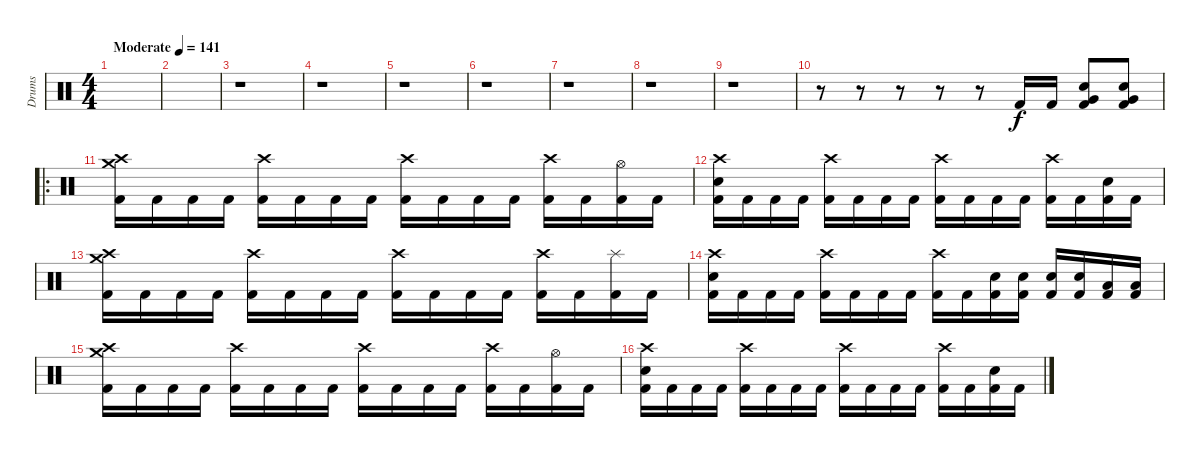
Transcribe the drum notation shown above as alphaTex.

\track ("Drums" "Drums") {solo instrument percussion}
\staff {score}
\articulation defaults
\ts (4 4)
\tempo (141 "Moderate")
\clef neutral
\ks c
|
|
r.1 |
r.1 |
r.1 |
r.1 |
r.1 |
r.1 |
r.1 |
r.8 r.8 r.8 r.8 r.8 "Kick (hit) 2".16 "Kick (hit) 2".16 ("Very Low Tom (hit)" "Electric Snare (hit)" "Kick (hit) 2").8 ("Very Low Tom (hit)" "Electric Snare (hit)" "Kick (hit) 2").8 |
\ro
("Crash high (hit)" "Crash medium (hit)" "Kick (hit) 2").16 "Kick (hit) 2".16 "Kick (hit) 2".16 "Kick (hit) 2".16 ("Crash high (hit)" "Kick (hit) 2").16 "Kick (hit) 2".16 "Kick (hit) 2".16 "Kick (hit) 2".16 ("Crash high (hit)" "Kick (hit) 2").16 "Kick (hit) 2".16 "Kick (hit) 2".16 "Kick (hit) 2".16 ("Crash high (hit)" "Kick (hit) 2").16 "Kick (hit) 2".16 ("Hi-Hat (open)" "Kick (hit) 2").16 "Kick (hit) 2".16 |
("Crash high (hit)" "Electric Snare (hit)" "Kick (hit) 2").16 "Kick (hit) 2".16 "Kick (hit) 2".16 "Kick (hit) 2".16 ("Crash high (hit)" "Kick (hit) 2").16 "Kick (hit) 2".16 "Kick (hit) 2".16 "Kick (hit) 2".16 ("Crash high (hit)" "Kick (hit) 2").16 "Kick (hit) 2".16 "Kick (hit) 2".16 "Kick (hit) 2".16 ("Crash high (hit)" "Kick (hit) 2").16 "Kick (hit) 2".16 ("Electric Snare (hit)" "Kick (hit) 2").16 "Kick (hit) 2".16 |
("Crash high (hit)" "Crash medium (hit)" "Kick (hit) 2").16 "Kick (hit) 2".16 "Kick (hit) 2".16 "Kick (hit) 2".16 ("Crash high (hit)" "Kick (hit) 2").16 "Kick (hit) 2".16 "Kick (hit) 2".16 "Kick (hit) 2".16 ("Crash high (hit)" "Kick (hit) 2").16 "Kick (hit) 2".16 "Kick (hit) 2".16 "Kick (hit) 2".16 ("Crash high (hit)" "Kick (hit) 2").16 "Kick (hit) 2".16 ("Splash (hit)" "Kick (hit) 2").16 "Kick (hit) 2".16 |
("Crash high (hit)" "Electric Snare (hit)" "Kick (hit) 2").16 "Kick (hit) 2".16 "Kick (hit) 2".16 "Kick (hit) 2".16 ("Crash high (hit)" "Kick (hit) 2").16 "Kick (hit) 2".16 "Kick (hit) 2".16 "Kick (hit) 2".16 ("Crash high (hit)" "Kick (hit) 2").16 "Kick (hit) 2".16 ("Electric Snare (hit)" "Kick (hit) 2").16 ("Electric Snare (hit)" "Kick (hit) 2").16 ("Electric Snare (hit)" "Kick (hit) 2").16 ("Electric Snare (hit)" "Kick (hit) 2").16 ("Low Tom (hit)" "Kick (hit) 2").16 ("Low Tom (hit)" "Kick (hit) 2").16 |
("Crash high (hit)" "Crash medium (hit)" "Kick (hit) 2").16 "Kick (hit) 2".16 "Kick (hit) 2".16 "Kick (hit) 2".16 ("Crash high (hit)" "Kick (hit) 2").16 "Kick (hit) 2".16 "Kick (hit) 2".16 "Kick (hit) 2".16 ("Crash high (hit)" "Kick (hit) 2").16 "Kick (hit) 2".16 "Kick (hit) 2".16 "Kick (hit) 2".16 ("Crash high (hit)" "Kick (hit) 2").16 "Kick (hit) 2".16 ("Hi-Hat (open)" "Kick (hit) 2").16 "Kick (hit) 2".16 |
("Crash high (hit)" "Electric Snare (hit)" "Kick (hit) 2").16 "Kick (hit) 2".16 "Kick (hit) 2".16 "Kick (hit) 2".16 ("Crash high (hit)" "Kick (hit) 2").16 "Kick (hit) 2".16 "Kick (hit) 2".16 "Kick (hit) 2".16 ("Crash high (hit)" "Kick (hit) 2").16 "Kick (hit) 2".16 "Kick (hit) 2".16 "Kick (hit) 2".16 ("Crash high (hit)" "Kick (hit) 2").16 "Kick (hit) 2".16 ("Electric Snare (hit)" "Kick (hit) 2").16 "Kick (hit) 2".16
